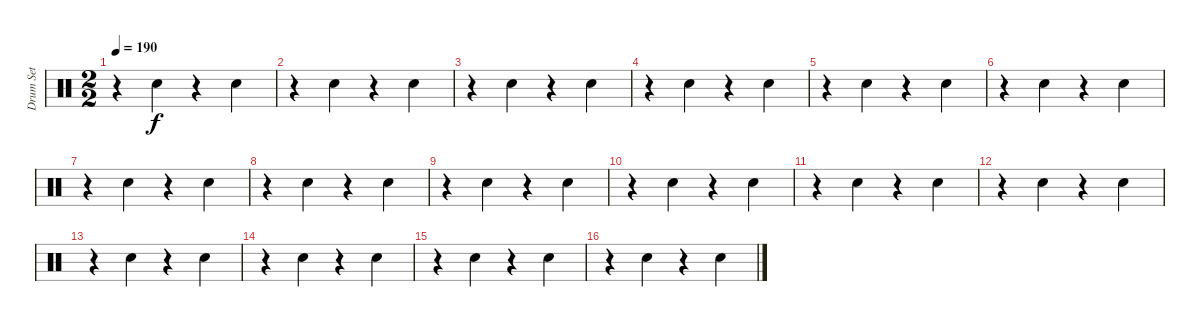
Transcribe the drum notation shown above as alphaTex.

\track ("Drum Set" "Drum Set") {instrument percussion}
\staff {score}
\articulation defaults
\ts (2 2)
\tempo 190
\clef neutral
\ks c
r.4{dy f} "Hand Clap (hit)".4 r.4 "Hand Clap (hit)".4 |
r.4 "Hand Clap (hit)".4 r.4 "Hand Clap (hit)".4 |
r.4 "Hand Clap (hit)".4 r.4 "Hand Clap (hit)".4 |
r.4 "Hand Clap (hit)".4 r.4 "Hand Clap (hit)".4 |
r.4 "Hand Clap (hit)".4 r.4 "Hand Clap (hit)".4 |
r.4 "Hand Clap (hit)".4 r.4 "Hand Clap (hit)".4 |
r.4 "Hand Clap (hit)".4 r.4 "Hand Clap (hit)".4 |
r.4 "Hand Clap (hit)".4 r.4 "Hand Clap (hit)".4 |
r.4 "Hand Clap (hit)".4 r.4 "Hand Clap (hit)".4 |
r.4 "Hand Clap (hit)".4 r.4 "Hand Clap (hit)".4 |
r.4 "Hand Clap (hit)".4 r.4 "Hand Clap (hit)".4 |
r.4 "Hand Clap (hit)".4 r.4 "Hand Clap (hit)".4 |
r.4 "Hand Clap (hit)".4 r.4 "Hand Clap (hit)".4 |
r.4 "Hand Clap (hit)".4 r.4 "Hand Clap (hit)".4 |
r.4 "Hand Clap (hit)".4 r.4 "Hand Clap (hit)".4 |
r.4 "Hand Clap (hit)".4 r.4 "Hand Clap (hit)".4
